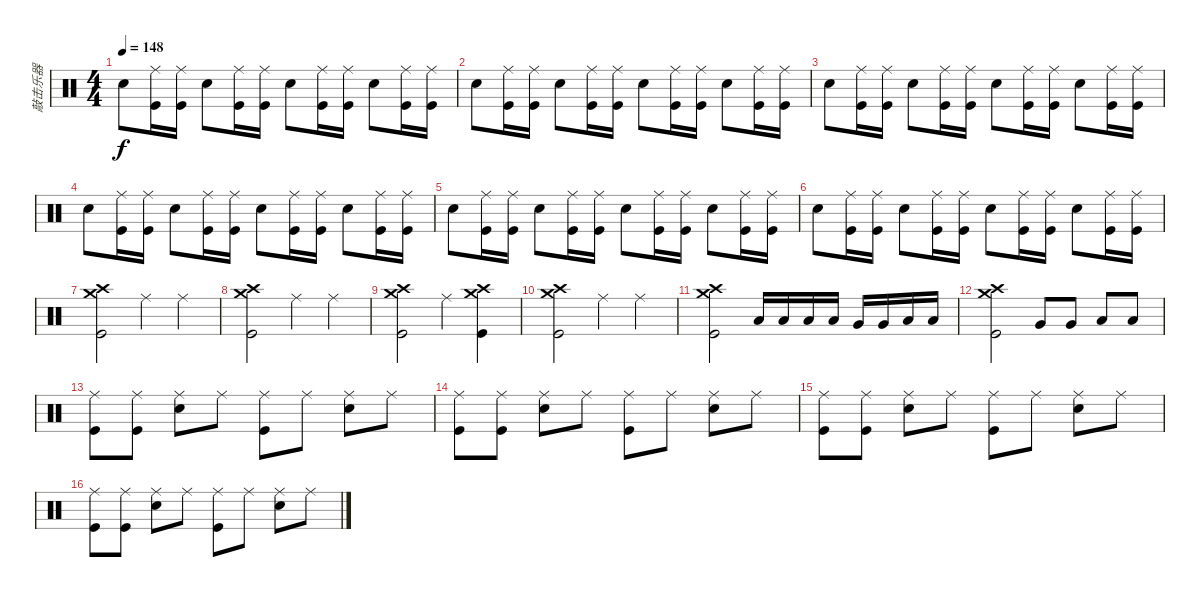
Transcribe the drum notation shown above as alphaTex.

\track ("敲击乐器" "敲击乐器") {instrument percussion}
\staff {score}
\articulation defaults
\ts (4 4)
\tempo 148
\clef neutral
\ks c "Snare (hit) 2".8{dy f}
("Kick (hit)" "Ride (middle)").16 ("Kick (hit)" "Ride (middle)").16 "Snare (hit) 2".8 ("Kick (hit)" "Ride (middle)").16 ("Kick (hit)" "Ride (middle)").16 "Snare (hit) 2".8 ("Kick (hit)" "Ride (middle)").16 ("Kick (hit)" "Ride (middle)").16 "Snare (hit) 2".8 ("Kick (hit)" "Ride (middle)").16 ("Kick (hit)" "Ride (middle)").16 |
"Snare (hit) 2".8 ("Kick (hit)" "Ride (middle)").16 ("Kick (hit)" "Ride (middle)").16 "Snare (hit) 2".8 ("Kick (hit)" "Ride (middle)").16 ("Kick (hit)" "Ride (middle)").16 "Snare (hit) 2".8 ("Kick (hit)" "Ride (middle)").16 ("Kick (hit)" "Ride (middle)").16 "Snare (hit) 2".8 ("Kick (hit)" "Ride (middle)").16 ("Kick (hit)" "Ride (middle)").16 |
"Snare (hit) 2".8 ("Kick (hit)" "Ride (middle)").16 ("Kick (hit)" "Ride (middle)").16 "Snare (hit) 2".8 ("Kick (hit)" "Ride (middle)").16 ("Kick (hit)" "Ride (middle)").16 "Snare (hit) 2".8 ("Kick (hit)" "Ride (middle)").16 ("Kick (hit)" "Ride (middle)").16 "Snare (hit) 2".8 ("Kick (hit)" "Ride (middle)").16 ("Kick (hit)" "Ride (middle)").16 |
"Snare (hit) 2".8 ("Kick (hit)" "Ride (middle)").16 ("Kick (hit)" "Ride (middle)").16 "Snare (hit) 2".8 ("Kick (hit)" "Ride (middle)").16 ("Kick (hit)" "Ride (middle)").16 "Snare (hit) 2".8 ("Kick (hit)" "Ride (middle)").16 ("Kick (hit)" "Ride (middle)").16 "Snare (hit) 2".8 ("Kick (hit)" "Ride (middle)").16 ("Kick (hit)" "Ride (middle)").16 |
"Snare (hit) 2".8 ("Kick (hit)" "Ride (middle)").16 ("Kick (hit)" "Ride (middle)").16 "Snare (hit) 2".8 ("Kick (hit)" "Ride (middle)").16 ("Kick (hit)" "Ride (middle)").16 "Snare (hit) 2".8 ("Kick (hit)" "Ride (middle)").16 ("Kick (hit)" "Ride (middle)").16 "Snare (hit) 2".8 ("Kick (hit)" "Ride (middle)").16 ("Kick (hit)" "Ride (middle)").16 |
"Snare (hit) 2".8 ("Kick (hit)" "Ride (middle)").16 ("Kick (hit)" "Ride (middle)").16 "Snare (hit) 2".8 ("Kick (hit)" "Ride (middle)").16 ("Kick (hit)" "Ride (middle)").16 "Snare (hit) 2".8 ("Kick (hit)" "Ride (middle)").16 ("Kick (hit)" "Ride (middle)").16 "Snare (hit) 2".8 ("Kick (hit)" "Ride (middle)").16 ("Kick (hit)" "Ride (middle)").16 |
("Crash high (hit)" "Kick (hit)" "Crash medium (hit)").2 "Ride (middle)".4 "Ride (middle)".4 |
("Crash high (hit)" "Kick (hit)" "Crash medium (hit)").2 "Ride (middle)".4 "Ride (middle)".4 |
("Crash high (hit)" "Kick (hit)" "Crash medium (hit)").2 "Ride (middle)".4 ("Crash high (hit)" "Kick (hit)" "Crash medium (hit)").4 |
("Crash high (hit)" "Kick (hit)" "Crash medium (hit)").2 "Ride (middle)".4 "Ride (middle)".4 |
("Crash high (hit)" "Kick (hit)" "Crash medium (hit)").2 "Low Tom (hit)".16 "Low Tom (hit)".16 "Low Floor Tom (hit)".16 "Low Floor Tom (hit)".16 "Very Low Tom (hit)".16 "Very Low Tom (hit)".16 "Low Floor Tom (hit)".16 "Low Floor Tom (hit)".16 |
("Crash high (hit)" "Kick (hit)" "Crash medium (hit)").2 "Very Low Tom (hit)".8 "Very Low Tom (hit)".8 "Low Floor Tom (hit)".8 "Low Floor Tom (hit)".8 |
("Ride (middle)" "Kick (hit)").8 ("Ride (middle)" "Kick (hit)").8 ("Ride (middle)" "Snare (hit) 2").8 "Ride (middle)".8 ("Ride (middle)" "Kick (hit)").8 "Ride (middle)".8 ("Ride (middle)" "Snare (hit) 2").8 "Ride (middle)".8 |
("Ride (middle)" "Kick (hit)").8 ("Ride (middle)" "Kick (hit)").8 ("Ride (middle)" "Snare (hit) 2").8 "Ride (middle)".8 ("Ride (middle)" "Kick (hit)").8 "Ride (middle)".8 ("Ride (middle)" "Snare (hit) 2").8 "Ride (middle)".8 |
("Ride (middle)" "Kick (hit)").8 ("Ride (middle)" "Kick (hit)").8 ("Ride (middle)" "Snare (hit) 2").8 "Ride (middle)".8 ("Ride (middle)" "Kick (hit)").8 "Ride (middle)".8 ("Ride (middle)" "Snare (hit) 2").8 "Ride (middle)".8 |
("Ride (middle)" "Kick (hit)").8 ("Ride (middle)" "Kick (hit)").8 ("Ride (middle)" "Snare (hit) 2").8 "Ride (middle)".8 ("Ride (middle)" "Kick (hit)").8 "Ride (middle)".8 ("Ride (middle)" "Snare (hit) 2").8 "Ride (middle)".8
